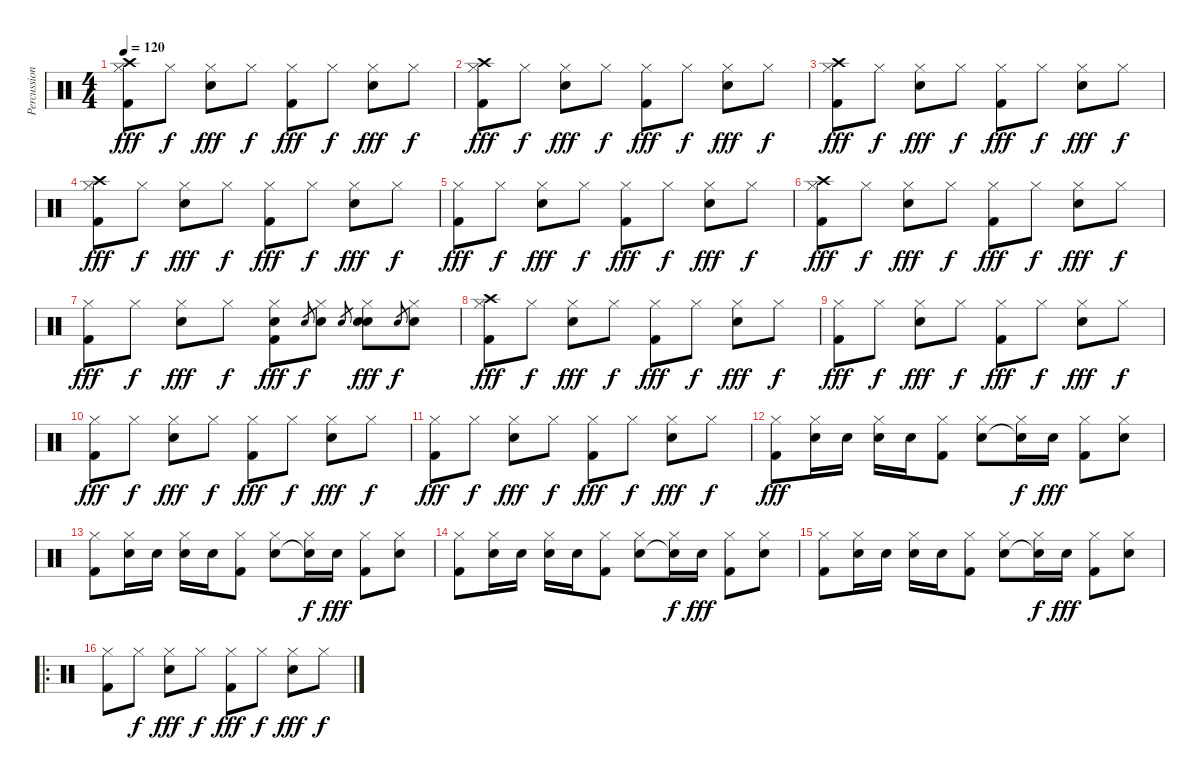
\track ("Percussion" "Percussion") {instrument percussion}
\staff {score}
\articulation defaults
\ts (4 4)
\tempo 120
\clef neutral
\ks c
("Hi-Hat (closed)" "Kick (hit) 2" "Crash high (hit)").8{dy fff} "Hi-Hat (closed)".8{dy f} ("Hi-Hat (closed)" "Electric Snare (hit)").8{dy fff} "Hi-Hat (closed)".8{dy f} ("Hi-Hat (closed)" "Kick (hit) 2").8{dy fff} "Hi-Hat (closed)".8{dy f} ("Hi-Hat (closed)" "Electric Snare (hit)").8{dy fff} "Hi-Hat (closed)".8{dy f} |
("Hi-Hat (closed)" "Kick (hit) 2" "Crash high (hit)").8{dy fff} "Hi-Hat (closed)".8{dy f} ("Hi-Hat (closed)" "Electric Snare (hit)").8{dy fff} "Hi-Hat (closed)".8{dy f} ("Hi-Hat (closed)" "Kick (hit) 2").8{dy fff} "Hi-Hat (closed)".8{dy f} ("Hi-Hat (closed)" "Electric Snare (hit)").8{dy fff} "Hi-Hat (closed)".8{dy f} |
("Hi-Hat (closed)" "Kick (hit) 2" "Crash high (hit)").8{dy fff} "Hi-Hat (closed)".8{dy f} ("Hi-Hat (closed)" "Electric Snare (hit)").8{dy fff} "Hi-Hat (closed)".8{dy f} ("Hi-Hat (closed)" "Kick (hit) 2").8{dy fff} "Hi-Hat (closed)".8{dy f} ("Hi-Hat (closed)" "Electric Snare (hit)").8{dy fff} "Hi-Hat (closed)".8{dy f} |
("Hi-Hat (closed)" "Kick (hit) 2" "Crash high (hit)").8{dy fff} "Hi-Hat (closed)".8{dy f} ("Hi-Hat (closed)" "Electric Snare (hit)").8{dy fff} "Hi-Hat (closed)".8{dy f} ("Hi-Hat (closed)" "Kick (hit) 2").8{dy fff} "Hi-Hat (closed)".8{dy f} ("Hi-Hat (closed)" "Electric Snare (hit)").8{dy fff} "Hi-Hat (closed)".8{dy f} |
("Hi-Hat (closed)" "Kick (hit) 2").8{dy fff} "Hi-Hat (closed)".8{dy f} ("Hi-Hat (closed)" "Electric Snare (hit)").8{dy fff} "Hi-Hat (closed)".8{dy f} ("Hi-Hat (closed)" "Kick (hit) 2").8{dy fff} "Hi-Hat (closed)".8{dy f} ("Hi-Hat (closed)" "Electric Snare (hit)").8{dy fff} "Hi-Hat (closed)".8{dy f} |
("Hi-Hat (closed)" "Kick (hit) 2" "Crash high (hit)").8{dy fff} "Hi-Hat (closed)".8{dy f} ("Hi-Hat (closed)" "Electric Snare (hit)").8{dy fff} "Hi-Hat (closed)".8{dy f} ("Hi-Hat (closed)" "Kick (hit) 2").8{dy fff} "Hi-Hat (closed)".8{dy f} ("Hi-Hat (closed)" "Electric Snare (hit)").8{dy fff} "Hi-Hat (closed)".8{dy f} |
("Hi-Hat (closed)" "Kick (hit) 2").8{dy fff} "Hi-Hat (closed)".8{dy f} ("Hi-Hat (closed)" "Electric Snare (hit)").8{dy fff} "Hi-Hat (closed)".8{dy f} ("Hi-Hat (closed)" "Kick (hit) 2" "Electric Snare (hit)").8{dy fff} "Electric Snare (hit)".8{gr dy f} ("Hi-Hat (closed)" "Electric Snare (hit)").8 "Electric Snare (hit)".8{gr} ("Hi-Hat (closed)" "Electric Snare (hit)" "Electric Snare (hit)").8{dy fff} "Electric Snare (hit)".8{gr dy f} ("Hi-Hat (closed)" "Electric Snare (hit)").8 |
("Hi-Hat (closed)" "Kick (hit) 2" "Crash high (hit)").8{dy fff} "Hi-Hat (closed)".8{dy f} ("Hi-Hat (closed)" "Electric Snare (hit)").8{dy fff} "Hi-Hat (closed)".8{dy f} ("Hi-Hat (closed)" "Kick (hit) 2").8{dy fff} "Hi-Hat (closed)".8{dy f} ("Hi-Hat (closed)" "Electric Snare (hit)").8{dy fff} "Hi-Hat (closed)".8{dy f} |
("Hi-Hat (closed)" "Kick (hit) 2").8{dy fff} "Hi-Hat (closed)".8{dy f} ("Hi-Hat (closed)" "Electric Snare (hit)").8{dy fff} "Hi-Hat (closed)".8{dy f} ("Hi-Hat (closed)" "Kick (hit) 2").8{dy fff} "Hi-Hat (closed)".8{dy f} ("Hi-Hat (closed)" "Electric Snare (hit)").8{dy fff} "Hi-Hat (closed)".8{dy f} |
("Hi-Hat (closed)" "Kick (hit) 2").8{dy fff} "Hi-Hat (closed)".8{dy f} ("Hi-Hat (closed)" "Electric Snare (hit)").8{dy fff} "Hi-Hat (closed)".8{dy f} ("Hi-Hat (closed)" "Kick (hit) 2").8{dy fff} "Hi-Hat (closed)".8{dy f} ("Hi-Hat (closed)" "Electric Snare (hit)").8{dy fff} "Hi-Hat (closed)".8{dy f} |
("Hi-Hat (closed)" "Kick (hit) 2").8{dy fff} "Hi-Hat (closed)".8{dy f} ("Hi-Hat (closed)" "Electric Snare (hit)").8{dy fff} "Hi-Hat (closed)".8{dy f} ("Hi-Hat (closed)" "Kick (hit) 2").8{dy fff} "Hi-Hat (closed)".8{dy f} ("Hi-Hat (closed)" "Electric Snare (hit)").8{dy fff} "Hi-Hat (closed)".8{dy f} |
("Kick (hit) 2" "Hi-Hat (closed)").8{dy fff} ("Electric Snare (hit)" "Hi-Hat (closed)").16 "Electric Snare (hit)".16 ("Electric Snare (hit)" "Hi-Hat (closed)").16 "Electric Snare (hit)".16 ("Kick (hit) 2" "Hi-Hat (closed)").8 ("Electric Snare (hit)" "Hi-Hat (closed)").8 ("Snare (hit)"{t} "Hi-Hat (closed)").16{dy f} "Electric Snare (hit)".16{dy fff} ("Kick (hit) 2" "Hi-Hat (closed)").8 ("Electric Snare (hit)" "Hi-Hat (closed)").8 |
("Kick (hit) 2" "Hi-Hat (closed)").8 ("Electric Snare (hit)" "Hi-Hat (closed)").16 "Electric Snare (hit)".16 ("Electric Snare (hit)" "Hi-Hat (closed)").16 "Electric Snare (hit)".16 ("Kick (hit) 2" "Hi-Hat (closed)").8 ("Electric Snare (hit)" "Hi-Hat (closed)").8 ("Snare (hit)"{t} "Hi-Hat (closed)").16{dy f} "Electric Snare (hit)".16{dy fff} ("Kick (hit) 2" "Hi-Hat (closed)").8 ("Electric Snare (hit)" "Hi-Hat (closed)").8 |
("Kick (hit) 2" "Hi-Hat (closed)").8 ("Electric Snare (hit)" "Hi-Hat (closed)").16 "Electric Snare (hit)".16 ("Electric Snare (hit)" "Hi-Hat (closed)").16 "Electric Snare (hit)".16 ("Kick (hit) 2" "Hi-Hat (closed)").8 ("Electric Snare (hit)" "Hi-Hat (closed)").8 ("Snare (hit)"{t} "Hi-Hat (closed)").16{dy f} "Electric Snare (hit)".16{dy fff} ("Kick (hit) 2" "Hi-Hat (closed)").8 ("Electric Snare (hit)" "Hi-Hat (closed)").8 |
("Kick (hit) 2" "Hi-Hat (closed)").8 ("Electric Snare (hit)" "Hi-Hat (closed)").16 "Electric Snare (hit)".16 ("Electric Snare (hit)" "Hi-Hat (closed)").16 "Electric Snare (hit)".16 ("Kick (hit) 2" "Hi-Hat (closed)").8 ("Electric Snare (hit)" "Hi-Hat (closed)").8 ("Snare (hit)"{t} "Hi-Hat (closed)").16{dy f} "Electric Snare (hit)".16{dy fff} ("Kick (hit) 2" "Hi-Hat (closed)").8 ("Electric Snare (hit)" "Hi-Hat (closed)").8 |
\ro
("Hi-Hat (closed)" "Kick (hit) 2").8 "Hi-Hat (closed)".8{dy f} ("Hi-Hat (closed)" "Electric Snare (hit)").8{dy fff} "Hi-Hat (closed)".8{dy f} ("Hi-Hat (closed)" "Kick (hit) 2").8{dy fff} "Hi-Hat (closed)".8{dy f} ("Hi-Hat (closed)" "Electric Snare (hit)").8{dy fff} "Hi-Hat (closed)".8{dy f}
